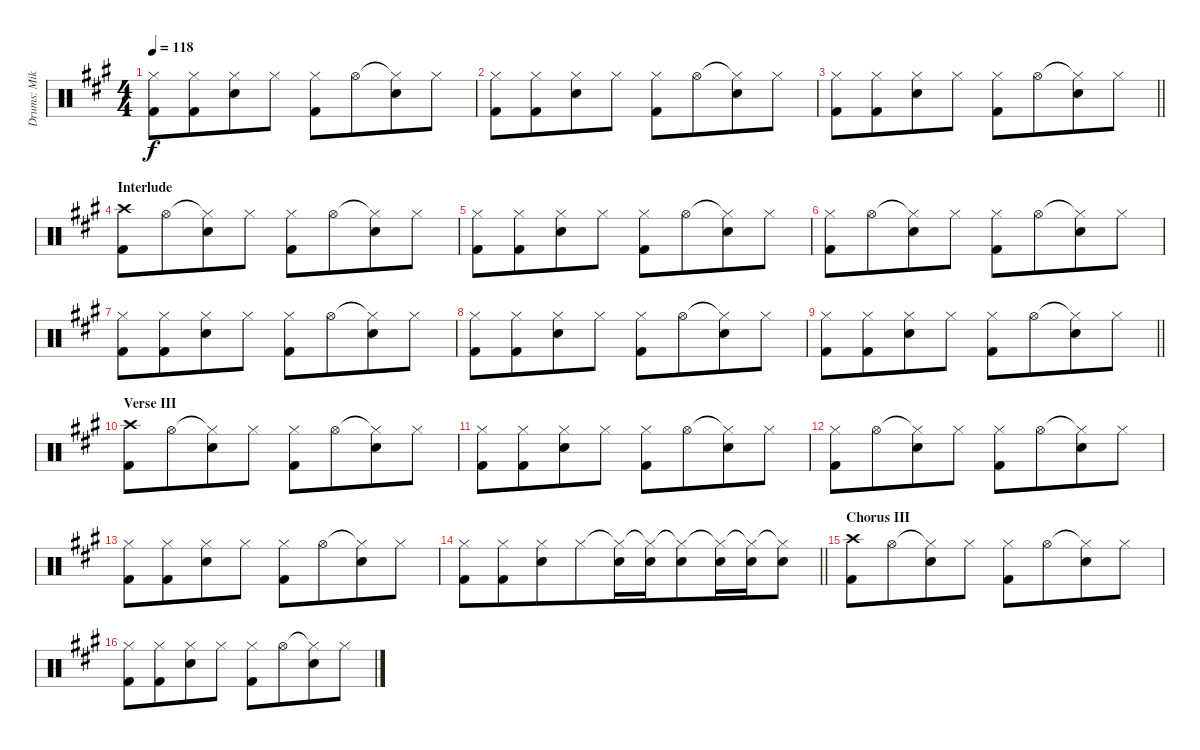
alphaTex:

\track ("Drums: Mike" "Drums: Mik") {instrument percussion}
\staff {score}
\articulation defaults
\ts (4 4)
\tempo 118
\clef neutral
\ks a
("Hi-Hat (closed)" "Kick (hit) 2").8{dy f} ("Hi-Hat (closed)" "Kick (hit) 2").8{beam merge} ("Hi-Hat (closed)" "Electric Snare (hit)").8{beam merge} "Hi-Hat (closed)".8 ("Hi-Hat (closed)" "Kick (hit) 2").8 "Hi-Hat (open)".8{beam merge} ("Hi-Hat (closed)"{t} "Electric Snare (hit)").8{beam merge} "Hi-Hat (closed)".8 |
("Hi-Hat (closed)" "Kick (hit) 2").8 ("Hi-Hat (closed)" "Kick (hit) 2").8{beam merge} ("Hi-Hat (closed)" "Electric Snare (hit)").8{beam merge} "Hi-Hat (closed)".8 ("Hi-Hat (closed)" "Kick (hit) 2").8 "Hi-Hat (open)".8{beam merge} ("Hi-Hat (closed)"{t} "Electric Snare (hit)").8{beam merge} "Hi-Hat (closed)".8 |
\barLineRight lightlight
("Hi-Hat (closed)" "Kick (hit) 2").8 ("Hi-Hat (closed)" "Kick (hit) 2").8{beam merge} ("Hi-Hat (closed)" "Electric Snare (hit)").8{beam merge} "Hi-Hat (closed)".8 ("Hi-Hat (closed)" "Kick (hit) 2").8 "Hi-Hat (open)".8{beam merge} ("Hi-Hat (closed)"{t} "Electric Snare (hit)").8{beam merge} "Hi-Hat (closed)".8 |
\section ("" "Interlude")
("Crash high (hit)" "Kick (hit) 2").8 "Hi-Hat (open)".8{beam merge} ("Hi-Hat (closed)"{t} "Electric Snare (hit)").8{beam merge} "Hi-Hat (closed)".8 ("Hi-Hat (closed)" "Kick (hit) 2").8 "Hi-Hat (open)".8{beam merge} ("Hi-Hat (closed)"{t} "Electric Snare (hit)").8{beam merge} "Hi-Hat (closed)".8 |
("Hi-Hat (closed)" "Kick (hit) 2").8 ("Hi-Hat (closed)" "Kick (hit) 2").8{beam merge} ("Hi-Hat (closed)" "Electric Snare (hit)").8{beam merge} "Hi-Hat (closed)".8 ("Hi-Hat (closed)" "Kick (hit) 2").8 "Hi-Hat (open)".8{beam merge} ("Hi-Hat (closed)"{t} "Electric Snare (hit)").8{beam merge} "Hi-Hat (closed)".8 |
("Hi-Hat (closed)" "Kick (hit) 2").8 "Hi-Hat (open)".8{beam merge} ("Hi-Hat (closed)"{t} "Electric Snare (hit)").8{beam merge} "Hi-Hat (closed)".8 ("Hi-Hat (closed)" "Kick (hit) 2").8 "Hi-Hat (open)".8{beam merge} ("Hi-Hat (closed)"{t} "Electric Snare (hit)").8{beam merge} "Hi-Hat (closed)".8 |
("Hi-Hat (closed)" "Kick (hit) 2").8 ("Hi-Hat (closed)" "Kick (hit) 2").8{beam merge} ("Hi-Hat (closed)" "Electric Snare (hit)").8{beam merge} "Hi-Hat (closed)".8 ("Hi-Hat (closed)" "Kick (hit) 2").8 "Hi-Hat (open)".8{beam merge} ("Hi-Hat (closed)"{t} "Electric Snare (hit)").8{beam merge} "Hi-Hat (closed)".8 |
("Hi-Hat (closed)" "Kick (hit) 2").8 ("Hi-Hat (closed)" "Kick (hit) 2").8{beam merge} ("Hi-Hat (closed)" "Electric Snare (hit)").8{beam merge} "Hi-Hat (closed)".8 ("Hi-Hat (closed)" "Kick (hit) 2").8 "Hi-Hat (open)".8{beam merge} ("Hi-Hat (closed)"{t} "Electric Snare (hit)").8{beam merge} "Hi-Hat (closed)".8 |
\barLineRight lightlight
("Hi-Hat (closed)" "Kick (hit) 2").8 ("Hi-Hat (closed)" "Kick (hit) 2").8{beam merge} ("Hi-Hat (closed)" "Electric Snare (hit)").8{beam merge} "Hi-Hat (closed)".8 ("Hi-Hat (closed)" "Kick (hit) 2").8 "Hi-Hat (open)".8{beam merge} ("Hi-Hat (closed)"{t} "Electric Snare (hit)").8{beam merge} "Hi-Hat (closed)".8 |
\section ("" "Verse III")
("Crash high (hit)" "Kick (hit) 2").8 "Hi-Hat (open)".8{beam merge} ("Hi-Hat (closed)"{t} "Electric Snare (hit)").8{beam merge} "Hi-Hat (closed)".8 ("Hi-Hat (closed)" "Kick (hit) 2").8 "Hi-Hat (open)".8{beam merge} ("Hi-Hat (closed)"{t} "Electric Snare (hit)").8{beam merge} "Hi-Hat (closed)".8 |
("Hi-Hat (closed)" "Kick (hit) 2").8 ("Hi-Hat (closed)" "Kick (hit) 2").8{beam merge} ("Hi-Hat (closed)" "Electric Snare (hit)").8{beam merge} "Hi-Hat (closed)".8 ("Hi-Hat (closed)" "Kick (hit) 2").8 "Hi-Hat (open)".8{beam merge} ("Hi-Hat (closed)"{t} "Electric Snare (hit)").8{beam merge} "Hi-Hat (closed)".8 |
("Hi-Hat (closed)" "Kick (hit) 2").8 "Hi-Hat (open)".8{beam merge} ("Hi-Hat (closed)"{t} "Electric Snare (hit)").8{beam merge} "Hi-Hat (closed)".8 ("Hi-Hat (closed)" "Kick (hit) 2").8 "Hi-Hat (open)".8{beam merge} ("Hi-Hat (closed)"{t} "Electric Snare (hit)").8{beam merge} "Hi-Hat (closed)".8 |
("Hi-Hat (closed)" "Kick (hit) 2").8 ("Hi-Hat (closed)" "Kick (hit) 2").8{beam merge} ("Hi-Hat (closed)" "Electric Snare (hit)").8{beam merge} "Hi-Hat (closed)".8 ("Hi-Hat (closed)" "Kick (hit) 2").8 "Hi-Hat (open)".8{beam merge} ("Hi-Hat (closed)"{t} "Electric Snare (hit)").8{beam merge} "Hi-Hat (closed)".8 |
\barLineRight lightlight
("Hi-Hat (closed)" "Kick (hit) 2").8 ("Hi-Hat (closed)" "Kick (hit) 2").8{beam merge} ("Hi-Hat (closed)" "Electric Snare (hit)").8{beam merge} "Hi-Hat (closed)".8{beam merge} ("Hi-Hat (closed)"{t} "Electric Snare (hit)").16{beam merge} ("Hi-Hat (closed)"{t} "Electric Snare (hit)").16{beam merge} ("Hi-Hat (closed)"{t} "Electric Snare (hit)").8{beam merge} ("Hi-Hat (closed)"{t} "Electric Snare (hit)").16{beam merge} ("Hi-Hat (closed)"{t} "Electric Snare (hit)").16{beam merge} ("Hi-Hat (closed)"{t} "Electric Snare (hit)").8 |
\section ("" "Chorus III")
("Crash high (hit)" "Kick (hit) 2").8 "Hi-Hat (open)".8{beam merge} ("Hi-Hat (closed)"{t} "Electric Snare (hit)").8{beam merge} "Hi-Hat (closed)".8 ("Hi-Hat (closed)" "Kick (hit) 2").8 "Hi-Hat (open)".8{beam merge} ("Hi-Hat (closed)"{t} "Electric Snare (hit)").8{beam merge} "Hi-Hat (closed)".8 |
("Hi-Hat (closed)" "Kick (hit) 2").8 ("Hi-Hat (closed)" "Kick (hit) 2").8{beam merge} ("Hi-Hat (closed)" "Electric Snare (hit)").8{beam merge} "Hi-Hat (closed)".8 ("Hi-Hat (closed)" "Kick (hit) 2").8 "Hi-Hat (open)".8{beam merge} ("Hi-Hat (closed)"{t} "Electric Snare (hit)").8{beam merge} "Hi-Hat (closed)".8
